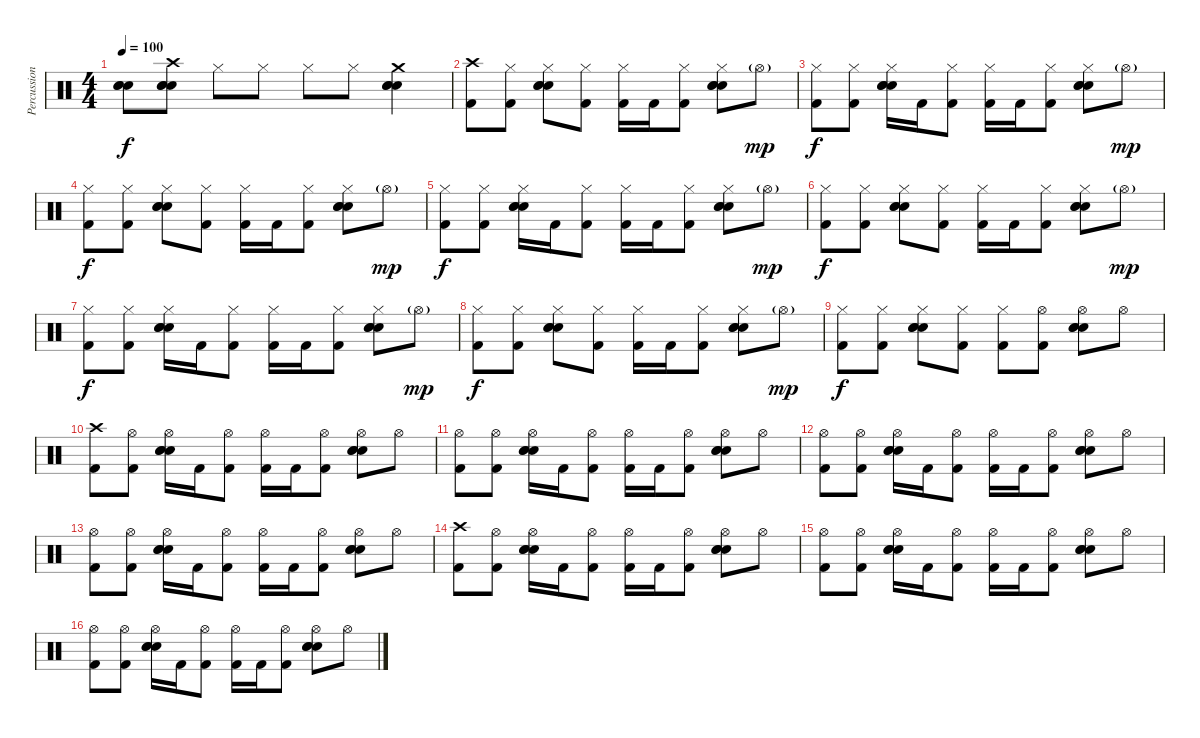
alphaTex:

\track ("Percussions" "Percussion") {instrument percussion}
\staff {score}
\articulation defaults
\ts (4 4)
\tempo 100
\clef neutral
\ks c
("Snare (hit) 2" "Electric Snare (hit)" "Electric Snare (hit)").8{dy f} ("Crash high (hit)" "Snare (hit) 2" "Electric Snare (hit)" "Electric Snare (hit)").8 "Hi-Hat (closed)".8 "Hi-Hat (closed)".8 "Hi-Hat (closed)".8 "Hi-Hat (closed)".8 ("Crash medium (hit)" "Snare (hit) 2" "Electric Snare (hit)" "Electric Snare (hit)").4 |
("Crash high (hit)" "Kick (hit) 2").8 ("Hi-Hat (closed)" "Kick (hit) 2").8 ("Hi-Hat (closed)" "Snare (hit) 2" "Electric Snare (hit)" "Electric Snare (hit)").8 ("Hi-Hat (closed)" "Kick (hit) 2").8 ("Hi-Hat (closed)" "Kick (hit) 2").16 "Kick (hit) 2".16 ("Hi-Hat (closed)" "Kick (hit) 2").8 ("Hi-Hat (closed)" "Snare (hit) 2" "Electric Snare (hit)" "Electric Snare (hit)").8 "Hi-Hat (open)"{g}.8{dy mp} |
("Hi-Hat (closed)" "Kick (hit) 2").8{dy f} ("Hi-Hat (closed)" "Kick (hit) 2").8 ("Hi-Hat (closed)" "Snare (hit) 2" "Electric Snare (hit)" "Electric Snare (hit)").16 "Kick (hit) 2".16 ("Hi-Hat (closed)" "Kick (hit) 2").8 ("Hi-Hat (closed)" "Kick (hit) 2").16 "Kick (hit) 2".16 ("Hi-Hat (closed)" "Kick (hit) 2").8 ("Hi-Hat (closed)" "Snare (hit) 2" "Electric Snare (hit)" "Electric Snare (hit)").8 "Hi-Hat (open)"{g}.8{dy mp} |
("Hi-Hat (closed)" "Kick (hit) 2").8{dy f} ("Hi-Hat (closed)" "Kick (hit) 2").8 ("Hi-Hat (closed)" "Snare (hit) 2" "Electric Snare (hit)" "Electric Snare (hit)").8 ("Hi-Hat (closed)" "Kick (hit) 2").8 ("Hi-Hat (closed)" "Kick (hit) 2").16 "Kick (hit) 2".16 ("Hi-Hat (closed)" "Kick (hit) 2").8 ("Hi-Hat (closed)" "Snare (hit) 2" "Electric Snare (hit)" "Electric Snare (hit)").8 "Hi-Hat (open)"{g}.8{dy mp} |
("Hi-Hat (closed)" "Kick (hit) 2").8{dy f} ("Hi-Hat (closed)" "Kick (hit) 2").8 ("Hi-Hat (closed)" "Snare (hit) 2" "Electric Snare (hit)" "Electric Snare (hit)").16 "Kick (hit) 2".16 ("Hi-Hat (closed)" "Kick (hit) 2").8 ("Hi-Hat (closed)" "Kick (hit) 2").16 "Kick (hit) 2".16 ("Hi-Hat (closed)" "Kick (hit) 2").8 ("Hi-Hat (closed)" "Snare (hit) 2" "Electric Snare (hit)" "Electric Snare (hit)").8 "Hi-Hat (open)"{g}.8{dy mp} |
("Hi-Hat (closed)" "Kick (hit) 2").8{dy f} ("Hi-Hat (closed)" "Kick (hit) 2").8 ("Hi-Hat (closed)" "Snare (hit) 2" "Electric Snare (hit)" "Electric Snare (hit)").8 ("Hi-Hat (closed)" "Kick (hit) 2").8 ("Hi-Hat (closed)" "Kick (hit) 2").16 "Kick (hit) 2".16 ("Hi-Hat (closed)" "Kick (hit) 2").8 ("Hi-Hat (closed)" "Snare (hit) 2" "Electric Snare (hit)" "Electric Snare (hit)").8 "Hi-Hat (open)"{g}.8{dy mp} |
("Hi-Hat (closed)" "Kick (hit) 2").8{dy f} ("Hi-Hat (closed)" "Kick (hit) 2").8 ("Hi-Hat (closed)" "Snare (hit) 2" "Electric Snare (hit)" "Electric Snare (hit)").16 "Kick (hit) 2".16 ("Hi-Hat (closed)" "Kick (hit) 2").8 ("Hi-Hat (closed)" "Kick (hit) 2").16 "Kick (hit) 2".16 ("Hi-Hat (closed)" "Kick (hit) 2").8 ("Hi-Hat (closed)" "Snare (hit) 2" "Electric Snare (hit)" "Electric Snare (hit)").8 "Hi-Hat (open)"{g}.8{dy mp} |
("Hi-Hat (closed)" "Kick (hit) 2").8{dy f} ("Hi-Hat (closed)" "Kick (hit) 2").8 ("Hi-Hat (closed)" "Snare (hit) 2" "Electric Snare (hit)" "Electric Snare (hit)").8 ("Hi-Hat (closed)" "Kick (hit) 2").8 ("Hi-Hat (closed)" "Kick (hit) 2").16 "Kick (hit) 2".16 ("Hi-Hat (closed)" "Kick (hit) 2").8 ("Hi-Hat (closed)" "Snare (hit) 2" "Electric Snare (hit)" "Electric Snare (hit)").8 "Hi-Hat (open)"{g}.8{dy mp} |
("Hi-Hat (closed)" "Kick (hit) 2").8{dy f} ("Hi-Hat (closed)" "Kick (hit) 2").8 ("Hi-Hat (closed)" "Snare (hit) 2" "Electric Snare (hit)" "Electric Snare (hit)").8 ("Hi-Hat (closed)" "Kick (hit) 2").8 ("Hi-Hat (closed)" "Kick (hit) 2").8 ("Hi-Hat (open)" "Kick (hit) 2").8 ("Hi-Hat (open)" "Snare (hit) 2" "Electric Snare (hit)" "Electric Snare (hit)").8 "Hi-Hat (open)".8 |
("Crash high (hit)" "Kick (hit) 2").8 ("Hi-Hat (open)" "Kick (hit) 2").8 ("Hi-Hat (open)" "Snare (hit) 2" "Electric Snare (hit)" "Electric Snare (hit)").16 "Kick (hit) 2".16 ("Hi-Hat (open)" "Kick (hit) 2").8 ("Hi-Hat (open)" "Kick (hit) 2").16 "Kick (hit) 2".16 ("Hi-Hat (open)" "Kick (hit) 2").8 ("Hi-Hat (open)" "Snare (hit) 2" "Electric Snare (hit)" "Electric Snare (hit)").8 "Hi-Hat (open)".8 |
("Hi-Hat (open)" "Kick (hit) 2").8 ("Hi-Hat (open)" "Kick (hit) 2").8 ("Hi-Hat (open)" "Snare (hit) 2" "Electric Snare (hit)" "Electric Snare (hit)").16 "Kick (hit) 2".16 ("Hi-Hat (open)" "Kick (hit) 2").8 ("Hi-Hat (open)" "Kick (hit) 2").16 "Kick (hit) 2".16 ("Hi-Hat (open)" "Kick (hit) 2").8 ("Hi-Hat (open)" "Snare (hit) 2" "Electric Snare (hit)" "Electric Snare (hit)").8 "Hi-Hat (open)".8 |
("Hi-Hat (open)" "Kick (hit) 2").8 ("Hi-Hat (open)" "Kick (hit) 2").8 ("Hi-Hat (open)" "Snare (hit) 2" "Electric Snare (hit)" "Electric Snare (hit)").16 "Kick (hit) 2".16 ("Hi-Hat (open)" "Kick (hit) 2").8 ("Hi-Hat (open)" "Kick (hit) 2").16 "Kick (hit) 2".16 ("Hi-Hat (open)" "Kick (hit) 2").8 ("Hi-Hat (open)" "Snare (hit) 2" "Electric Snare (hit)" "Electric Snare (hit)").8 "Hi-Hat (open)".8 |
("Hi-Hat (open)" "Kick (hit) 2").8 ("Hi-Hat (open)" "Kick (hit) 2").8 ("Hi-Hat (open)" "Snare (hit) 2" "Electric Snare (hit)" "Electric Snare (hit)").16 "Kick (hit) 2".16 ("Hi-Hat (open)" "Kick (hit) 2").8 ("Hi-Hat (open)" "Kick (hit) 2").16 "Kick (hit) 2".16 ("Hi-Hat (open)" "Kick (hit) 2").8 ("Hi-Hat (open)" "Snare (hit) 2" "Electric Snare (hit)" "Electric Snare (hit)").8 "Hi-Hat (open)".8 |
("Crash high (hit)" "Kick (hit) 2").8 ("Hi-Hat (open)" "Kick (hit) 2").8 ("Hi-Hat (open)" "Snare (hit) 2" "Electric Snare (hit)" "Electric Snare (hit)").16 "Kick (hit) 2".16 ("Hi-Hat (open)" "Kick (hit) 2").8 ("Hi-Hat (open)" "Kick (hit) 2").16 "Kick (hit) 2".16 ("Hi-Hat (open)" "Kick (hit) 2").8 ("Hi-Hat (open)" "Snare (hit) 2" "Electric Snare (hit)" "Electric Snare (hit)").8 "Hi-Hat (open)".8 |
("Hi-Hat (open)" "Kick (hit) 2").8 ("Hi-Hat (open)" "Kick (hit) 2").8 ("Hi-Hat (open)" "Snare (hit) 2" "Electric Snare (hit)" "Electric Snare (hit)").16 "Kick (hit) 2".16 ("Hi-Hat (open)" "Kick (hit) 2").8 ("Hi-Hat (open)" "Kick (hit) 2").16 "Kick (hit) 2".16 ("Hi-Hat (open)" "Kick (hit) 2").8 ("Hi-Hat (open)" "Snare (hit) 2" "Electric Snare (hit)" "Electric Snare (hit)").8 "Hi-Hat (open)".8 |
("Hi-Hat (open)" "Kick (hit) 2").8 ("Hi-Hat (open)" "Kick (hit) 2").8 ("Hi-Hat (open)" "Snare (hit) 2" "Electric Snare (hit)" "Electric Snare (hit)").16 "Kick (hit) 2".16 ("Hi-Hat (open)" "Kick (hit) 2").8 ("Hi-Hat (open)" "Kick (hit) 2").16 "Kick (hit) 2".16 ("Hi-Hat (open)" "Kick (hit) 2").8 ("Hi-Hat (open)" "Snare (hit) 2" "Electric Snare (hit)" "Electric Snare (hit)").8 "Hi-Hat (open)".8
